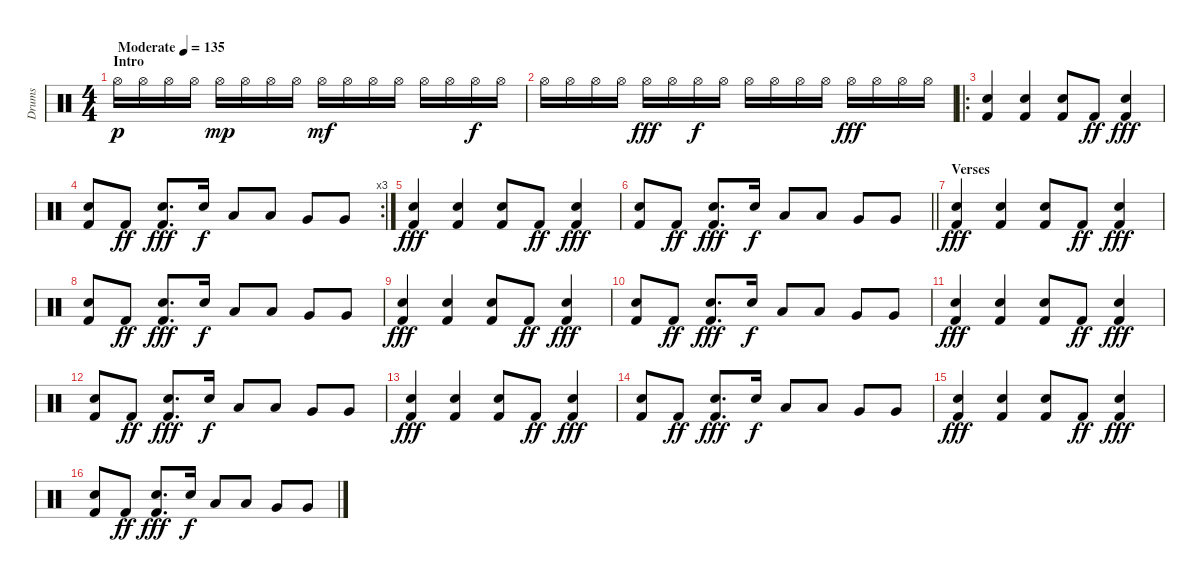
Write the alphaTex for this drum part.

\track ("Drums" "Drums") {instrument percussion}
\staff {score}
\articulation defaults
\ts (4 4)
\section ("" "Intro")
\tempo (135 "Moderate")
\clef neutral
\ks c "Hi-Hat (open)".16{dy p} "Hi-Hat (open)".16 "Hi-Hat (open)".16 "Hi-Hat (open)".16 "Hi-Hat (open)".16{dy mp} "Hi-Hat (open)".16 "Hi-Hat (open)".16 "Hi-Hat (open)".16 "Hi-Hat (open)".16{dy mf} "Hi-Hat (open)".16 "Hi-Hat (open)".16 "Hi-Hat (open)".16 "Hi-Hat (open)".16 "Hi-Hat (open)".16 "Hi-Hat (open)".16{dy f} "Hi-Hat (open)".16
|
"Hi-Hat (open)".16 "Hi-Hat (open)".16 "Hi-Hat (open)".16 "Hi-Hat (open)".16 "Hi-Hat (open)".16{dy fff} "Hi-Hat (open)".16 "Hi-Hat (open)".16{dy f} "Hi-Hat (open)".16 "Hi-Hat (open)".16 "Hi-Hat (open)".16 "Hi-Hat (open)".16 "Hi-Hat (open)".16 "Hi-Hat (open)".16{dy fff} "Hi-Hat (open)".16 "Hi-Hat (open)".16 "Hi-Hat (open)".16 |
\ro
("Electric Snare (hit)" "Kick (hit) 2").4 ("Electric Snare (hit)" "Kick (hit) 2").4 ("Electric Snare (hit)" "Kick (hit) 2").8 "Kick (hit) 2".8{dy ff} ("Electric Snare (hit)" "Kick (hit) 2").4{dy fff} |
\rc 3
("Electric Snare (hit)" "Kick (hit) 2").8 "Kick (hit) 2".8{dy ff} ("Electric Snare (hit)" "Kick (hit) 2").8{d dy fff} "Electric Snare (hit)".16{dy f} "Low Tom (hit)".8 "Low Tom (hit)".8 "Very Low Tom (hit)".8 "Very Low Tom (hit)".8 |
("Electric Snare (hit)" "Kick (hit) 2").4{dy fff} ("Electric Snare (hit)" "Kick (hit) 2").4 ("Electric Snare (hit)" "Kick (hit) 2").8 "Kick (hit) 2".8{dy ff} ("Electric Snare (hit)" "Kick (hit) 2").4{dy fff} |
\barLineRight lightlight
("Electric Snare (hit)" "Kick (hit) 2").8 "Kick (hit) 2".8{dy ff} ("Electric Snare (hit)" "Kick (hit) 2").8{d dy fff} "Electric Snare (hit)".16{dy f} "Low Tom (hit)".8 "Low Tom (hit)".8 "Very Low Tom (hit)".8 "Very Low Tom (hit)".8 |
\section ("" "Verses")
("Electric Snare (hit)" "Kick (hit) 2").4{dy fff} ("Electric Snare (hit)" "Kick (hit) 2").4 ("Electric Snare (hit)" "Kick (hit) 2").8 "Kick (hit) 2".8{dy ff} ("Electric Snare (hit)" "Kick (hit) 2").4{dy fff} |
("Electric Snare (hit)" "Kick (hit) 2").8 "Kick (hit) 2".8{dy ff} ("Electric Snare (hit)" "Kick (hit) 2").8{d dy fff} "Electric Snare (hit)".16{dy f} "Low Tom (hit)".8 "Low Tom (hit)".8 "Very Low Tom (hit)".8 "Very Low Tom (hit)".8 |
("Electric Snare (hit)" "Kick (hit) 2").4{dy fff} ("Electric Snare (hit)" "Kick (hit) 2").4 ("Electric Snare (hit)" "Kick (hit) 2").8 "Kick (hit) 2".8{dy ff} ("Electric Snare (hit)" "Kick (hit) 2").4{dy fff} |
("Electric Snare (hit)" "Kick (hit) 2").8 "Kick (hit) 2".8{dy ff} ("Electric Snare (hit)" "Kick (hit) 2").8{d dy fff} "Electric Snare (hit)".16{dy f} "Low Tom (hit)".8 "Low Tom (hit)".8 "Very Low Tom (hit)".8 "Very Low Tom (hit)".8 |
("Electric Snare (hit)" "Kick (hit) 2").4{dy fff} ("Electric Snare (hit)" "Kick (hit) 2").4 ("Electric Snare (hit)" "Kick (hit) 2").8 "Kick (hit) 2".8{dy ff} ("Electric Snare (hit)" "Kick (hit) 2").4{dy fff} |
("Electric Snare (hit)" "Kick (hit) 2").8 "Kick (hit) 2".8{dy ff} ("Electric Snare (hit)" "Kick (hit) 2").8{d dy fff} "Electric Snare (hit)".16{dy f} "Low Tom (hit)".8 "Low Tom (hit)".8 "Very Low Tom (hit)".8 "Very Low Tom (hit)".8 |
("Electric Snare (hit)" "Kick (hit) 2").4{dy fff} ("Electric Snare (hit)" "Kick (hit) 2").4 ("Electric Snare (hit)" "Kick (hit) 2").8 "Kick (hit) 2".8{dy ff} ("Electric Snare (hit)" "Kick (hit) 2").4{dy fff} |
("Electric Snare (hit)" "Kick (hit) 2").8 "Kick (hit) 2".8{dy ff} ("Electric Snare (hit)" "Kick (hit) 2").8{d dy fff} "Electric Snare (hit)".16{dy f} "Low Tom (hit)".8 "Low Tom (hit)".8 "Very Low Tom (hit)".8 "Very Low Tom (hit)".8 |
("Electric Snare (hit)" "Kick (hit) 2").4{dy fff} ("Electric Snare (hit)" "Kick (hit) 2").4 ("Electric Snare (hit)" "Kick (hit) 2").8 "Kick (hit) 2".8{dy ff} ("Electric Snare (hit)" "Kick (hit) 2").4{dy fff} |
("Electric Snare (hit)" "Kick (hit) 2").8 "Kick (hit) 2".8{dy ff} ("Electric Snare (hit)" "Kick (hit) 2").8{d dy fff} "Electric Snare (hit)".16{dy f} "Low Tom (hit)".8 "Low Tom (hit)".8 "Very Low Tom (hit)".8 "Very Low Tom (hit)".8
